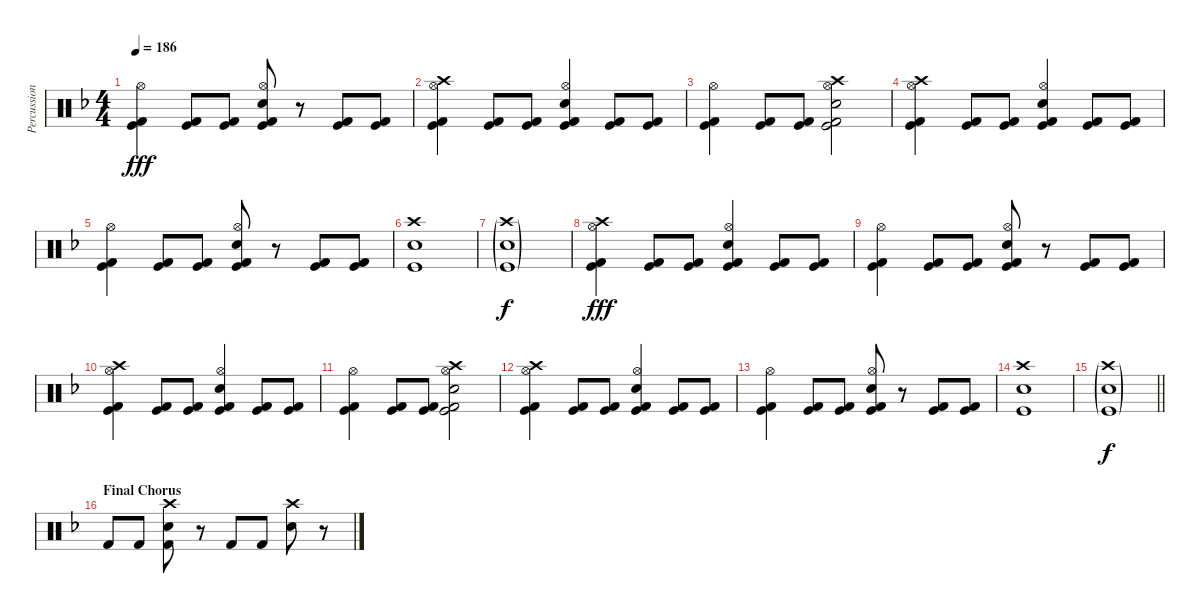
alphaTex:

\track ("Percussion" "Percussion") {instrument percussion}
\staff {score}
\articulation defaults
\ts (4 4)
\tempo 186
\clef neutral
\ks f
("Kick (hit)" "Kick (hit) 2" "Hi-Hat (open)").4{dy fff} ("Kick (hit)" "Kick (hit) 2").8 ("Kick (hit)" "Kick (hit) 2").8 ("Snare (hit) 2" "Kick (hit)" "Kick (hit) 2" "Hi-Hat (open)").8 r.8 ("Kick (hit)" "Kick (hit) 2").8 ("Kick (hit)" "Kick (hit) 2").8 |
("Crash high (hit)" "Kick (hit)" "Kick (hit) 2" "Hi-Hat (open)").4 ("Kick (hit)" "Kick (hit) 2").8 ("Kick (hit)" "Kick (hit) 2").8 ("Snare (hit) 2" "Kick (hit)" "Kick (hit) 2" "Hi-Hat (open)").4 ("Kick (hit)" "Kick (hit) 2").8 ("Kick (hit)" "Kick (hit) 2").8 |
("Kick (hit)" "Kick (hit) 2" "Hi-Hat (open)").4 ("Kick (hit)" "Kick (hit) 2").8 ("Kick (hit)" "Kick (hit) 2").8 ("Crash high (hit)" "Snare (hit) 2" "Kick (hit)" "Kick (hit) 2" "Hi-Hat (open)").2 |
("Crash high (hit)" "Kick (hit)" "Kick (hit) 2" "Hi-Hat (open)").4 ("Kick (hit)" "Kick (hit) 2").8 ("Kick (hit)" "Kick (hit) 2").8 ("Snare (hit) 2" "Kick (hit)" "Kick (hit) 2" "Hi-Hat (open)").4 ("Kick (hit)" "Kick (hit) 2").8 ("Kick (hit)" "Kick (hit) 2").8 |
("Kick (hit)" "Kick (hit) 2" "Hi-Hat (open)").4 ("Kick (hit)" "Kick (hit) 2").8 ("Kick (hit)" "Kick (hit) 2").8 ("Snare (hit) 2" "Kick (hit)" "Kick (hit) 2" "Hi-Hat (open)").8 r.8 ("Kick (hit)" "Kick (hit) 2").8 ("Kick (hit)" "Kick (hit) 2").8 |
("Crash high (hit)" "Kick (hit)" "Snare (hit) 2").1 |
("Crash high (hit)"{g} "Kick (hit)"{g} "Snare (hit) 2"{g}).1{dy f} |
("Crash high (hit)" "Kick (hit)" "Kick (hit) 2" "Hi-Hat (open)").4{dy fff} ("Kick (hit)" "Kick (hit) 2").8 ("Kick (hit)" "Kick (hit) 2").8 ("Snare (hit) 2" "Kick (hit)" "Kick (hit) 2" "Hi-Hat (open)").4 ("Kick (hit)" "Kick (hit) 2").8 ("Kick (hit)" "Kick (hit) 2").8 |
("Kick (hit)" "Kick (hit) 2" "Hi-Hat (open)").4 ("Kick (hit)" "Kick (hit) 2").8 ("Kick (hit)" "Kick (hit) 2").8 ("Snare (hit) 2" "Kick (hit)" "Kick (hit) 2" "Hi-Hat (open)").8 r.8 ("Kick (hit)" "Kick (hit) 2").8 ("Kick (hit)" "Kick (hit) 2").8 |
("Crash high (hit)" "Kick (hit)" "Kick (hit) 2" "Hi-Hat (open)").4 ("Kick (hit)" "Kick (hit) 2").8 ("Kick (hit)" "Kick (hit) 2").8 ("Snare (hit) 2" "Kick (hit)" "Kick (hit) 2" "Hi-Hat (open)").4 ("Kick (hit)" "Kick (hit) 2").8 ("Kick (hit)" "Kick (hit) 2").8 |
("Kick (hit)" "Kick (hit) 2" "Hi-Hat (open)").4 ("Kick (hit)" "Kick (hit) 2").8 ("Kick (hit)" "Kick (hit) 2").8 ("Crash high (hit)" "Snare (hit) 2" "Kick (hit)" "Kick (hit) 2" "Hi-Hat (open)").2 |
("Crash high (hit)" "Kick (hit)" "Kick (hit) 2" "Hi-Hat (open)").4 ("Kick (hit)" "Kick (hit) 2").8 ("Kick (hit)" "Kick (hit) 2").8 ("Snare (hit) 2" "Kick (hit)" "Kick (hit) 2" "Hi-Hat (open)").4 ("Kick (hit)" "Kick (hit) 2").8 ("Kick (hit)" "Kick (hit) 2").8 |
("Kick (hit)" "Kick (hit) 2" "Hi-Hat (open)").4 ("Kick (hit)" "Kick (hit) 2").8 ("Kick (hit)" "Kick (hit) 2").8 ("Snare (hit) 2" "Kick (hit)" "Kick (hit) 2" "Hi-Hat (open)").8 r.8 ("Kick (hit)" "Kick (hit) 2").8 ("Kick (hit)" "Kick (hit) 2").8 |
("Crash high (hit)" "Kick (hit)" "Snare (hit) 2").1 |
\barLineRight lightlight
("Crash high (hit)"{g} "Kick (hit)"{g} "Snare (hit) 2"{g}).1{dy f} |
\section ("" "Final Chorus")
"Kick (hit) 2".8 "Kick (hit) 2".8 ("Crash high (hit)" "Snare (hit) 2" "Kick (hit) 2").8 r.8 "Kick (hit) 2".8 "Kick (hit) 2".8 ("Crash high (hit)" "Snare (hit) 2").8 r.8
